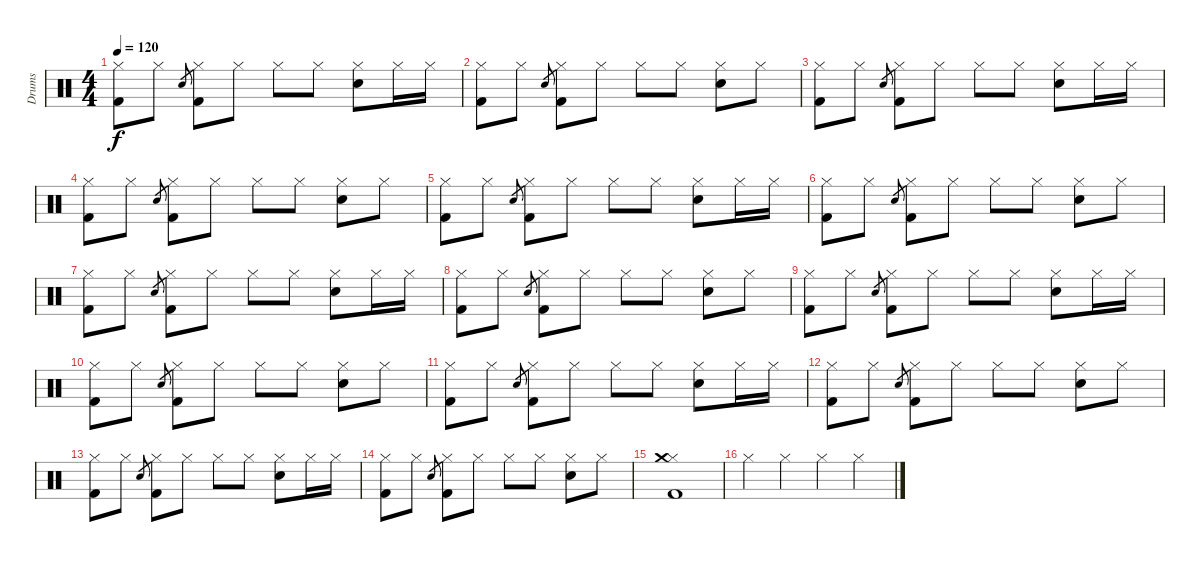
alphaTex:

\track ("Drums" "Drums") {instrument percussion}
\staff {score}
\articulation defaults
\ts (4 4)
\tempo 120
\clef neutral
\ks c
("Hi-Hat (closed)" "Kick (hit) 2").8{dy f} "Hi-Hat (closed)".8 "Electric Snare (hit)".8{gr} ("Hi-Hat (closed)" "Kick (hit) 2").8 "Hi-Hat (closed)".8 "Hi-Hat (closed)".8 "Hi-Hat (closed)".8 ("Hi-Hat (closed)" "Electric Snare (hit)").8 "Hi-Hat (closed)".16 "Hi-Hat (closed)".16 |
("Hi-Hat (closed)" "Kick (hit) 2").8 "Hi-Hat (closed)".8 "Electric Snare (hit)".8{gr} ("Hi-Hat (closed)" "Kick (hit) 2").8 "Hi-Hat (closed)".8 "Hi-Hat (closed)".8 "Hi-Hat (closed)".8 ("Hi-Hat (closed)" "Electric Snare (hit)").8 "Hi-Hat (closed)".8 |
("Hi-Hat (closed)" "Kick (hit) 2").8 "Hi-Hat (closed)".8 "Electric Snare (hit)".8{gr} ("Hi-Hat (closed)" "Kick (hit) 2").8 "Hi-Hat (closed)".8 "Hi-Hat (closed)".8 "Hi-Hat (closed)".8 ("Hi-Hat (closed)" "Electric Snare (hit)").8 "Hi-Hat (closed)".16 "Hi-Hat (closed)".16 |
("Hi-Hat (closed)" "Kick (hit) 2").8 "Hi-Hat (closed)".8 "Electric Snare (hit)".8{gr} ("Hi-Hat (closed)" "Kick (hit) 2").8 "Hi-Hat (closed)".8 "Hi-Hat (closed)".8 "Hi-Hat (closed)".8 ("Hi-Hat (closed)" "Electric Snare (hit)").8 "Hi-Hat (closed)".8 |
("Hi-Hat (closed)" "Kick (hit) 2").8 "Hi-Hat (closed)".8 "Electric Snare (hit)".8{gr} ("Hi-Hat (closed)" "Kick (hit) 2").8 "Hi-Hat (closed)".8 "Hi-Hat (closed)".8 "Hi-Hat (closed)".8 ("Hi-Hat (closed)" "Electric Snare (hit)").8 "Hi-Hat (closed)".16 "Hi-Hat (closed)".16 |
("Hi-Hat (closed)" "Kick (hit) 2").8 "Hi-Hat (closed)".8 "Electric Snare (hit)".8{gr} ("Hi-Hat (closed)" "Kick (hit) 2").8 "Hi-Hat (closed)".8 "Hi-Hat (closed)".8 "Hi-Hat (closed)".8 ("Hi-Hat (closed)" "Electric Snare (hit)").8 "Hi-Hat (closed)".8 |
("Hi-Hat (closed)" "Kick (hit) 2").8 "Hi-Hat (closed)".8 "Electric Snare (hit)".8{gr} ("Hi-Hat (closed)" "Kick (hit) 2").8 "Hi-Hat (closed)".8 "Hi-Hat (closed)".8 "Hi-Hat (closed)".8 ("Hi-Hat (closed)" "Electric Snare (hit)").8 "Hi-Hat (closed)".16 "Hi-Hat (closed)".16 |
("Hi-Hat (closed)" "Kick (hit) 2").8 "Hi-Hat (closed)".8 "Electric Snare (hit)".8{gr} ("Hi-Hat (closed)" "Kick (hit) 2").8 "Hi-Hat (closed)".8 "Hi-Hat (closed)".8 "Hi-Hat (closed)".8 ("Hi-Hat (closed)" "Electric Snare (hit)").8 "Hi-Hat (closed)".8 |
("Hi-Hat (closed)" "Kick (hit) 2").8 "Hi-Hat (closed)".8 "Electric Snare (hit)".8{gr} ("Hi-Hat (closed)" "Kick (hit) 2").8 "Hi-Hat (closed)".8 "Hi-Hat (closed)".8 "Hi-Hat (closed)".8 ("Hi-Hat (closed)" "Electric Snare (hit)").8 "Hi-Hat (closed)".16 "Hi-Hat (closed)".16 |
("Hi-Hat (closed)" "Kick (hit) 2").8 "Hi-Hat (closed)".8 "Electric Snare (hit)".8{gr} ("Hi-Hat (closed)" "Kick (hit) 2").8 "Hi-Hat (closed)".8 "Hi-Hat (closed)".8 "Hi-Hat (closed)".8 ("Hi-Hat (closed)" "Electric Snare (hit)").8 "Hi-Hat (closed)".8 |
("Hi-Hat (closed)" "Kick (hit) 2").8 "Hi-Hat (closed)".8 "Electric Snare (hit)".8{gr} ("Hi-Hat (closed)" "Kick (hit) 2").8 "Hi-Hat (closed)".8 "Hi-Hat (closed)".8 "Hi-Hat (closed)".8 ("Hi-Hat (closed)" "Electric Snare (hit)").8 "Hi-Hat (closed)".16 "Hi-Hat (closed)".16 |
("Hi-Hat (closed)" "Kick (hit) 2").8 "Hi-Hat (closed)".8 "Electric Snare (hit)".8{gr} ("Hi-Hat (closed)" "Kick (hit) 2").8 "Hi-Hat (closed)".8 "Hi-Hat (closed)".8 "Hi-Hat (closed)".8 ("Hi-Hat (closed)" "Electric Snare (hit)").8 "Hi-Hat (closed)".8 |
("Hi-Hat (closed)" "Kick (hit) 2").8 "Hi-Hat (closed)".8 "Electric Snare (hit)".8{gr} ("Hi-Hat (closed)" "Kick (hit) 2").8 "Hi-Hat (closed)".8 "Hi-Hat (closed)".8 "Hi-Hat (closed)".8 ("Hi-Hat (closed)" "Electric Snare (hit)").8 "Hi-Hat (closed)".16 "Hi-Hat (closed)".16 |
("Hi-Hat (closed)" "Kick (hit) 2").8 "Hi-Hat (closed)".8 "Electric Snare (hit)".8{gr} ("Hi-Hat (closed)" "Kick (hit) 2").8 "Hi-Hat (closed)".8 "Hi-Hat (closed)".8 "Hi-Hat (closed)".8 ("Hi-Hat (closed)" "Electric Snare (hit)").8 "Hi-Hat (closed)".8 |
("Hi-Hat (closed)" "Crash medium (hit)" "Kick (hit) 2").1 |
"Hi-Hat (closed)".4 "Hi-Hat (closed)".4 "Hi-Hat (closed)".4 "Hi-Hat (closed)".4
